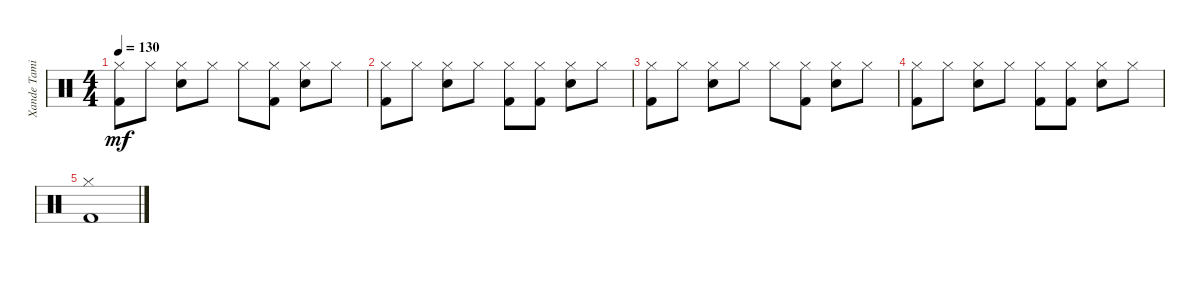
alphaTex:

\track ("Xande Tamietti" "Xande Tami") {instrument percussion}
\staff {score}
\articulation defaults
\ts (4 4)
\tempo 130
\clef neutral
\ks c
("Hi-Hat (closed)" "Kick (hit) 2").8{dy mf} "Hi-Hat (closed)".8 ("Hi-Hat (closed)" "Electric Snare (hit)").8 "Hi-Hat (closed)".8 "Hi-Hat (closed)".8 ("Hi-Hat (closed)" "Kick (hit) 2").8 ("Hi-Hat (closed)" "Electric Snare (hit)").8 "Hi-Hat (closed)".8 |
("Hi-Hat (closed)" "Kick (hit) 2").8 "Hi-Hat (closed)".8 ("Hi-Hat (closed)" "Electric Snare (hit)").8 "Hi-Hat (closed)".8 ("Hi-Hat (closed)" "Kick (hit) 2").8 ("Hi-Hat (closed)" "Kick (hit) 2").8 ("Hi-Hat (closed)" "Electric Snare (hit)").8 "Hi-Hat (closed)".8 |
("Hi-Hat (closed)" "Kick (hit) 2").8 "Hi-Hat (closed)".8 ("Hi-Hat (closed)" "Electric Snare (hit)").8 "Hi-Hat (closed)".8 "Hi-Hat (closed)".8 ("Hi-Hat (closed)" "Kick (hit) 2").8 ("Hi-Hat (closed)" "Electric Snare (hit)").8 "Hi-Hat (closed)".8 |
("Hi-Hat (closed)" "Kick (hit) 2").8 "Hi-Hat (closed)".8 ("Hi-Hat (closed)" "Electric Snare (hit)").8 "Hi-Hat (closed)".8 ("Hi-Hat (closed)" "Kick (hit) 2").8 ("Hi-Hat (closed)" "Kick (hit) 2").8 ("Hi-Hat (closed)" "Electric Snare (hit)").8 "Hi-Hat (closed)".8 |
("Hi-Hat (closed)" "Kick (hit) 2").1
